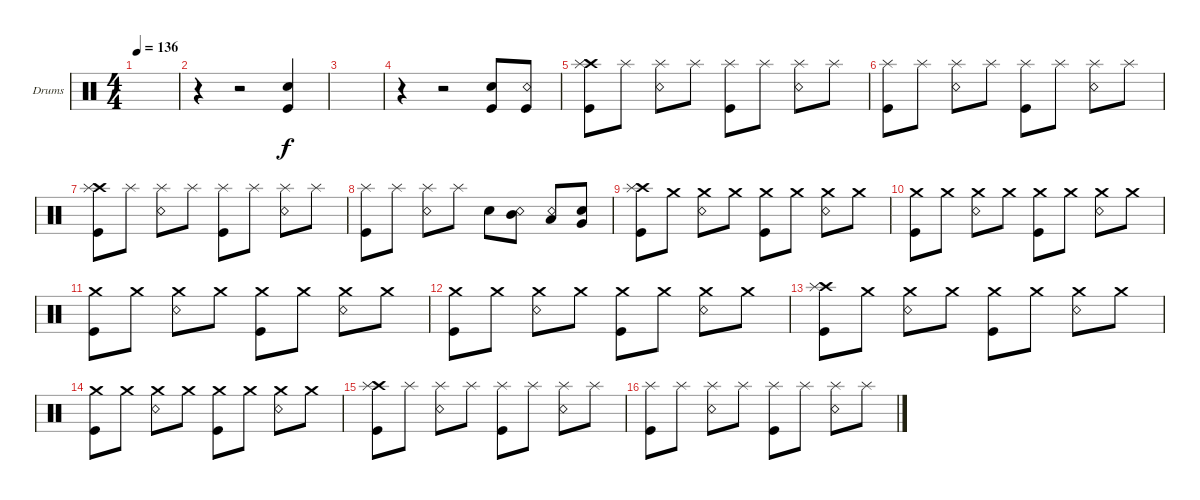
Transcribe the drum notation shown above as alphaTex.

\defaultSystemsLayout 4
\bracketExtendMode groupsimilarinstruments
\firstSystemTrackNameOrientation horizontal
\otherSystemsTrackNameOrientation horizontal
\track ("Нюта" "Drums") {instrument percussion}
\staff {score}
\articulation defaults
\ts (4 4)
\tempo 136
\clef neutral
\scale
0.474178
\ks c
|
\scale
0.262911 r.4 r.2 ("Kick (hit)" "Snare (hit) 2").4 |
\scale
0.262911 |
\scale
0.333333 r.4 r.2 ("Kick (hit)" "Snare (hit) 2").8 ("Snare (rim shot)" "Kick (hit)").8 |
\scale
0.333333 ("Crash high (hit)" "Kick (hit)" "Splash (hit)").8 "Splash (hit)".8 ("Snare (rim shot)" "Splash (hit)").8 "Splash (hit)".8 ("Kick (hit)" "Splash (hit)").8 "Splash (hit)".8 ("Snare (rim shot)" "Splash (hit)").8 "Splash (hit)".8 |
\scale
0.333333 ("Kick (hit)" "Splash (hit)").8 "Splash (hit)".8 ("Snare (rim shot)" "Splash (hit)").8 "Splash (hit)".8 ("Kick (hit)" "Splash (hit)").8 "Splash (hit)".8 ("Snare (rim shot)" "Splash (hit)").8 "Splash (hit)".8 |
("Crash high (hit)" "Kick (hit)" "Splash (hit)").8 "Splash (hit)".8 ("Snare (rim shot)" "Splash (hit)").8 "Splash (hit)".8 ("Kick (hit)" "Splash (hit)").8 "Splash (hit)".8 ("Snare (rim shot)" "Splash (hit)").8 "Splash (hit)".8 |
("Kick (hit)" "Splash (hit)").8 "Splash (hit)".8 ("Snare (rim shot)" "Splash (hit)").8 "Splash (hit)".8 "Snare (hit) 2".8 ("Mid Tom (hit)" "Snare (rim shot)").8 ("Low Tom (hit)" "Snare (rim shot)").8 ("Very Low Tom (hit)" "Snare (hit) 2").8 |
("Crash high (hit)" "Kick (hit)" "Splash (hit)").8 "Crash medium (hit)".8 ("Snare (rim shot)" "Crash medium (hit)").8 "Crash medium (hit)".8 ("Kick (hit)" "Crash medium (hit)").8 "Crash medium (hit)".8 ("Snare (rim shot)" "Crash medium (hit)").8 "Crash medium (hit)".8 |
("Kick (hit)" "Crash medium (hit)").8 "Crash medium (hit)".8 ("Snare (rim shot)" "Crash medium (hit)").8 "Crash medium (hit)".8 ("Kick (hit)" "Crash medium (hit)").8 "Crash medium (hit)".8 ("Snare (rim shot)" "Crash medium (hit)").8 "Crash medium (hit)".8 |
("Kick (hit)" "Crash medium (hit)").8 "Crash medium (hit)".8 ("Snare (rim shot)" "Crash medium (hit)").8 "Crash medium (hit)".8 ("Kick (hit)" "Crash medium (hit)").8 "Crash medium (hit)".8 ("Snare (rim shot)" "Crash medium (hit)").8 "Crash medium (hit)".8 |
("Kick (hit)" "Crash medium (hit)").8 "Crash medium (hit)".8 ("Snare (rim shot)" "Crash medium (hit)").8 "Crash medium (hit)".8 ("Kick (hit)" "Crash medium (hit)").8 "Crash medium (hit)".8 ("Snare (rim shot)" "Crash medium (hit)").8 "Crash medium (hit)".8 |
("Crash high (hit)" "Kick (hit)" "Splash (hit)").8 "Crash medium (hit)".8 ("Snare (rim shot)" "Crash medium (hit)").8 "Crash medium (hit)".8 ("Kick (hit)" "Crash medium (hit)").8 "Crash medium (hit)".8 ("Snare (rim shot)" "Crash medium (hit)").8 "Crash medium (hit)".8 |
("Kick (hit)" "Crash medium (hit)").8 "Crash medium (hit)".8 ("Snare (rim shot)" "Crash medium (hit)").8 "Crash medium (hit)".8 ("Kick (hit)" "Crash medium (hit)").8 "Crash medium (hit)".8 ("Snare (rim shot)" "Crash medium (hit)").8 "Crash medium (hit)".8 |
("Crash high (hit)" "Kick (hit)" "Splash (hit)").8 "Splash (hit)".8 ("Snare (rim shot)" "Splash (hit)").8 "Splash (hit)".8 ("Kick (hit)" "Splash (hit)").8 "Splash (hit)".8 ("Snare (rim shot)" "Splash (hit)").8 "Splash (hit)".8 |
("Kick (hit)" "Splash (hit)").8 "Splash (hit)".8 ("Snare (rim shot)" "Splash (hit)").8 "Splash (hit)".8 ("Kick (hit)" "Splash (hit)").8 "Splash (hit)".8 ("Snare (rim shot)" "Splash (hit)").8 "Splash (hit)".8
